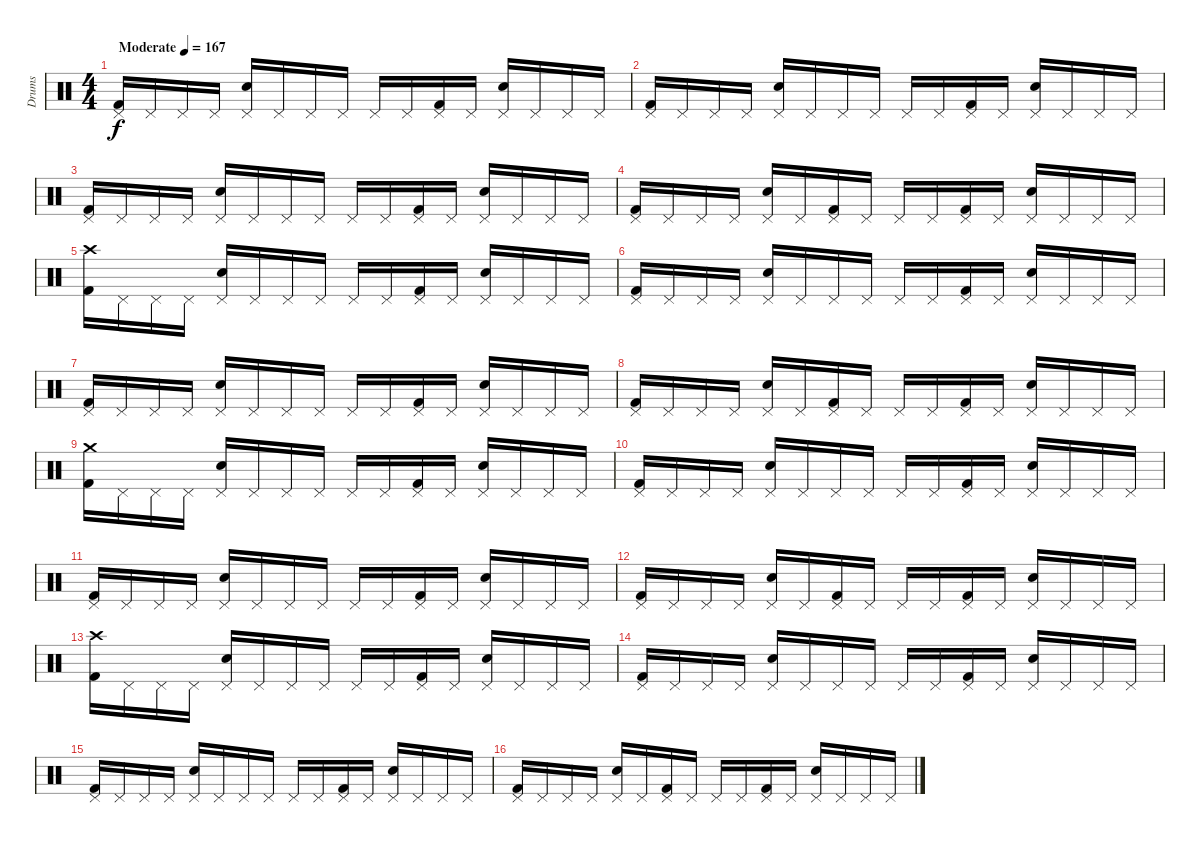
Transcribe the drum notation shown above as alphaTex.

\track ("Drums" "Drums") {instrument percussion}
\staff {score}
\articulation defaults
\ts (4 4)
\tempo (167 "Moderate")
\clef neutral
\ks c
("Pedal Hi-Hat (hit)" "Kick (hit) 2").16{dy f} "Pedal Hi-Hat (hit)".16 "Pedal Hi-Hat (hit)".16 "Pedal Hi-Hat (hit)".16 ("Pedal Hi-Hat (hit)" "Snare (hit) 2").16 "Pedal Hi-Hat (hit)".16 "Pedal Hi-Hat (hit)".16 "Pedal Hi-Hat (hit)".16 "Pedal Hi-Hat (hit)".16 "Pedal Hi-Hat (hit)".16 ("Pedal Hi-Hat (hit)" "Kick (hit) 2").16 "Pedal Hi-Hat (hit)".16 ("Pedal Hi-Hat (hit)" "Snare (hit) 2").16 "Pedal Hi-Hat (hit)".16 "Pedal Hi-Hat (hit)".16 "Pedal Hi-Hat (hit)".16 |
("Pedal Hi-Hat (hit)" "Kick (hit) 2").16 "Pedal Hi-Hat (hit)".16 "Pedal Hi-Hat (hit)".16 "Pedal Hi-Hat (hit)".16 ("Pedal Hi-Hat (hit)" "Snare (hit) 2").16 "Pedal Hi-Hat (hit)".16 "Pedal Hi-Hat (hit)".16 "Pedal Hi-Hat (hit)".16 "Pedal Hi-Hat (hit)".16 "Pedal Hi-Hat (hit)".16 ("Pedal Hi-Hat (hit)" "Kick (hit) 2").16 "Pedal Hi-Hat (hit)".16 ("Pedal Hi-Hat (hit)" "Snare (hit) 2").16 "Pedal Hi-Hat (hit)".16 "Pedal Hi-Hat (hit)".16 "Pedal Hi-Hat (hit)".16 |
("Pedal Hi-Hat (hit)" "Kick (hit) 2").16 "Pedal Hi-Hat (hit)".16 "Pedal Hi-Hat (hit)".16 "Pedal Hi-Hat (hit)".16 ("Pedal Hi-Hat (hit)" "Snare (hit) 2").16 "Pedal Hi-Hat (hit)".16 "Pedal Hi-Hat (hit)".16 "Pedal Hi-Hat (hit)".16 "Pedal Hi-Hat (hit)".16 "Pedal Hi-Hat (hit)".16 ("Pedal Hi-Hat (hit)" "Kick (hit) 2").16 "Pedal Hi-Hat (hit)".16 ("Pedal Hi-Hat (hit)" "Snare (hit) 2").16 "Pedal Hi-Hat (hit)".16 "Pedal Hi-Hat (hit)".16 "Pedal Hi-Hat (hit)".16 |
("Pedal Hi-Hat (hit)" "Kick (hit) 2").16 "Pedal Hi-Hat (hit)".16 "Pedal Hi-Hat (hit)".16 "Pedal Hi-Hat (hit)".16 ("Pedal Hi-Hat (hit)" "Snare (hit) 2").16 "Pedal Hi-Hat (hit)".16 ("Pedal Hi-Hat (hit)" "Kick (hit) 2").16 "Pedal Hi-Hat (hit)".16 "Pedal Hi-Hat (hit)".16 "Pedal Hi-Hat (hit)".16 ("Pedal Hi-Hat (hit)" "Kick (hit) 2").16 "Pedal Hi-Hat (hit)".16 ("Pedal Hi-Hat (hit)" "Snare (hit) 2").16 "Pedal Hi-Hat (hit)".16 "Pedal Hi-Hat (hit)".16 "Pedal Hi-Hat (hit)".16 |
("Crash high (hit)" "Kick (hit) 2").16 "Pedal Hi-Hat (hit)".16 "Pedal Hi-Hat (hit)".16 "Pedal Hi-Hat (hit)".16 ("Pedal Hi-Hat (hit)" "Snare (hit) 2").16 "Pedal Hi-Hat (hit)".16 "Pedal Hi-Hat (hit)".16 "Pedal Hi-Hat (hit)".16 "Pedal Hi-Hat (hit)".16 "Pedal Hi-Hat (hit)".16 ("Pedal Hi-Hat (hit)" "Kick (hit) 2").16 "Pedal Hi-Hat (hit)".16 ("Pedal Hi-Hat (hit)" "Snare (hit) 2").16 "Pedal Hi-Hat (hit)".16 "Pedal Hi-Hat (hit)".16 "Pedal Hi-Hat (hit)".16 |
("Pedal Hi-Hat (hit)" "Kick (hit) 2").16 "Pedal Hi-Hat (hit)".16 "Pedal Hi-Hat (hit)".16 "Pedal Hi-Hat (hit)".16 ("Pedal Hi-Hat (hit)" "Snare (hit) 2").16 "Pedal Hi-Hat (hit)".16 "Pedal Hi-Hat (hit)".16 "Pedal Hi-Hat (hit)".16 "Pedal Hi-Hat (hit)".16 "Pedal Hi-Hat (hit)".16 ("Pedal Hi-Hat (hit)" "Kick (hit) 2").16 "Pedal Hi-Hat (hit)".16 ("Pedal Hi-Hat (hit)" "Snare (hit) 2").16 "Pedal Hi-Hat (hit)".16 "Pedal Hi-Hat (hit)".16 "Pedal Hi-Hat (hit)".16 |
("Pedal Hi-Hat (hit)" "Kick (hit) 2").16 "Pedal Hi-Hat (hit)".16 "Pedal Hi-Hat (hit)".16 "Pedal Hi-Hat (hit)".16 ("Pedal Hi-Hat (hit)" "Snare (hit) 2").16 "Pedal Hi-Hat (hit)".16 "Pedal Hi-Hat (hit)".16 "Pedal Hi-Hat (hit)".16 "Pedal Hi-Hat (hit)".16 "Pedal Hi-Hat (hit)".16 ("Pedal Hi-Hat (hit)" "Kick (hit) 2").16 "Pedal Hi-Hat (hit)".16 ("Pedal Hi-Hat (hit)" "Snare (hit) 2").16 "Pedal Hi-Hat (hit)".16 "Pedal Hi-Hat (hit)".16 "Pedal Hi-Hat (hit)".16 |
("Pedal Hi-Hat (hit)" "Kick (hit) 2").16 "Pedal Hi-Hat (hit)".16 "Pedal Hi-Hat (hit)".16 "Pedal Hi-Hat (hit)".16 ("Pedal Hi-Hat (hit)" "Snare (hit) 2").16 "Pedal Hi-Hat (hit)".16 ("Pedal Hi-Hat (hit)" "Kick (hit) 2").16 "Pedal Hi-Hat (hit)".16 "Pedal Hi-Hat (hit)".16 "Pedal Hi-Hat (hit)".16 ("Pedal Hi-Hat (hit)" "Kick (hit) 2").16 "Pedal Hi-Hat (hit)".16 ("Pedal Hi-Hat (hit)" "Snare (hit) 2").16 "Pedal Hi-Hat (hit)".16 "Pedal Hi-Hat (hit)".16 "Pedal Hi-Hat (hit)".16 |
("Crash medium (hit)" "Kick (hit) 2").16 "Pedal Hi-Hat (hit)".16 "Pedal Hi-Hat (hit)".16 "Pedal Hi-Hat (hit)".16 ("Pedal Hi-Hat (hit)" "Snare (hit) 2").16 "Pedal Hi-Hat (hit)".16 "Pedal Hi-Hat (hit)".16 "Pedal Hi-Hat (hit)".16 "Pedal Hi-Hat (hit)".16 "Pedal Hi-Hat (hit)".16 ("Pedal Hi-Hat (hit)" "Kick (hit) 2").16 "Pedal Hi-Hat (hit)".16 ("Pedal Hi-Hat (hit)" "Snare (hit) 2").16 "Pedal Hi-Hat (hit)".16 "Pedal Hi-Hat (hit)".16 "Pedal Hi-Hat (hit)".16 |
("Pedal Hi-Hat (hit)" "Kick (hit) 2").16 "Pedal Hi-Hat (hit)".16 "Pedal Hi-Hat (hit)".16 "Pedal Hi-Hat (hit)".16 ("Pedal Hi-Hat (hit)" "Snare (hit) 2").16 "Pedal Hi-Hat (hit)".16 "Pedal Hi-Hat (hit)".16 "Pedal Hi-Hat (hit)".16 "Pedal Hi-Hat (hit)".16 "Pedal Hi-Hat (hit)".16 ("Pedal Hi-Hat (hit)" "Kick (hit) 2").16 "Pedal Hi-Hat (hit)".16 ("Pedal Hi-Hat (hit)" "Snare (hit) 2").16 "Pedal Hi-Hat (hit)".16 "Pedal Hi-Hat (hit)".16 "Pedal Hi-Hat (hit)".16 |
("Pedal Hi-Hat (hit)" "Kick (hit) 2").16 "Pedal Hi-Hat (hit)".16 "Pedal Hi-Hat (hit)".16 "Pedal Hi-Hat (hit)".16 ("Pedal Hi-Hat (hit)" "Snare (hit) 2").16 "Pedal Hi-Hat (hit)".16 "Pedal Hi-Hat (hit)".16 "Pedal Hi-Hat (hit)".16 "Pedal Hi-Hat (hit)".16 "Pedal Hi-Hat (hit)".16 ("Pedal Hi-Hat (hit)" "Kick (hit) 2").16 "Pedal Hi-Hat (hit)".16 ("Pedal Hi-Hat (hit)" "Snare (hit) 2").16 "Pedal Hi-Hat (hit)".16 "Pedal Hi-Hat (hit)".16 "Pedal Hi-Hat (hit)".16 |
("Pedal Hi-Hat (hit)" "Kick (hit) 2").16 "Pedal Hi-Hat (hit)".16 "Pedal Hi-Hat (hit)".16 "Pedal Hi-Hat (hit)".16 ("Pedal Hi-Hat (hit)" "Snare (hit) 2").16 "Pedal Hi-Hat (hit)".16 ("Pedal Hi-Hat (hit)" "Kick (hit) 2").16 "Pedal Hi-Hat (hit)".16 "Pedal Hi-Hat (hit)".16 "Pedal Hi-Hat (hit)".16 ("Pedal Hi-Hat (hit)" "Kick (hit) 2").16 "Pedal Hi-Hat (hit)".16 ("Pedal Hi-Hat (hit)" "Snare (hit) 2").16 "Pedal Hi-Hat (hit)".16 "Pedal Hi-Hat (hit)".16 "Pedal Hi-Hat (hit)".16 |
("Crash high (hit)" "Kick (hit) 2").16 "Pedal Hi-Hat (hit)".16 "Pedal Hi-Hat (hit)".16 "Pedal Hi-Hat (hit)".16 ("Pedal Hi-Hat (hit)" "Snare (hit) 2").16 "Pedal Hi-Hat (hit)".16 "Pedal Hi-Hat (hit)".16 "Pedal Hi-Hat (hit)".16 "Pedal Hi-Hat (hit)".16 "Pedal Hi-Hat (hit)".16 ("Pedal Hi-Hat (hit)" "Kick (hit) 2").16 "Pedal Hi-Hat (hit)".16 ("Pedal Hi-Hat (hit)" "Snare (hit) 2").16 "Pedal Hi-Hat (hit)".16 "Pedal Hi-Hat (hit)".16 "Pedal Hi-Hat (hit)".16 |
("Pedal Hi-Hat (hit)" "Kick (hit) 2").16 "Pedal Hi-Hat (hit)".16 "Pedal Hi-Hat (hit)".16 "Pedal Hi-Hat (hit)".16 ("Pedal Hi-Hat (hit)" "Snare (hit) 2").16 "Pedal Hi-Hat (hit)".16 "Pedal Hi-Hat (hit)".16 "Pedal Hi-Hat (hit)".16 "Pedal Hi-Hat (hit)".16 "Pedal Hi-Hat (hit)".16 ("Pedal Hi-Hat (hit)" "Kick (hit) 2").16 "Pedal Hi-Hat (hit)".16 ("Pedal Hi-Hat (hit)" "Snare (hit) 2").16 "Pedal Hi-Hat (hit)".16 "Pedal Hi-Hat (hit)".16 "Pedal Hi-Hat (hit)".16 |
("Pedal Hi-Hat (hit)" "Kick (hit) 2").16 "Pedal Hi-Hat (hit)".16 "Pedal Hi-Hat (hit)".16 "Pedal Hi-Hat (hit)".16 ("Pedal Hi-Hat (hit)" "Snare (hit) 2").16 "Pedal Hi-Hat (hit)".16 "Pedal Hi-Hat (hit)".16 "Pedal Hi-Hat (hit)".16 "Pedal Hi-Hat (hit)".16 "Pedal Hi-Hat (hit)".16 ("Pedal Hi-Hat (hit)" "Kick (hit) 2").16 "Pedal Hi-Hat (hit)".16 ("Pedal Hi-Hat (hit)" "Snare (hit) 2").16 "Pedal Hi-Hat (hit)".16 "Pedal Hi-Hat (hit)".16 "Pedal Hi-Hat (hit)".16 |
("Pedal Hi-Hat (hit)" "Kick (hit) 2").16 "Pedal Hi-Hat (hit)".16 "Pedal Hi-Hat (hit)".16 "Pedal Hi-Hat (hit)".16 ("Pedal Hi-Hat (hit)" "Snare (hit) 2").16 "Pedal Hi-Hat (hit)".16 ("Pedal Hi-Hat (hit)" "Kick (hit) 2").16 "Pedal Hi-Hat (hit)".16 "Pedal Hi-Hat (hit)".16 "Pedal Hi-Hat (hit)".16 ("Pedal Hi-Hat (hit)" "Kick (hit) 2").16 "Pedal Hi-Hat (hit)".16 ("Pedal Hi-Hat (hit)" "Snare (hit) 2").16 "Pedal Hi-Hat (hit)".16 "Pedal Hi-Hat (hit)".16 "Pedal Hi-Hat (hit)".16
